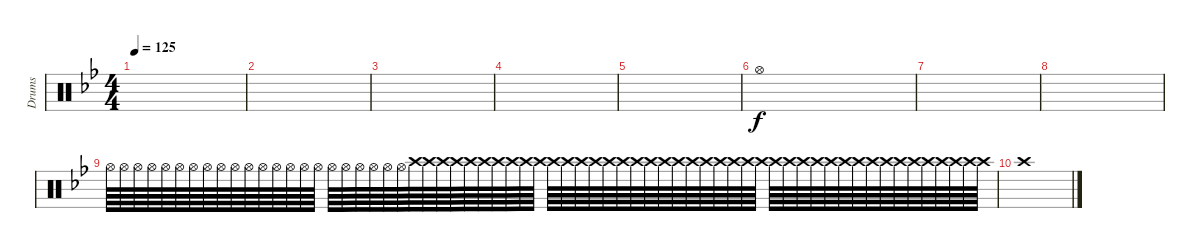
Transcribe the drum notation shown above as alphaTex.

\track ("Drums" "Drums") {instrument percussion}
\staff {score}
\articulation defaults
\ts (4 4)
\tempo 125
\clef neutral
\ks bb
|
|
|
|
|
"Hi-Hat (open)".1 |
|
|
"Hi-Hat (open)".64{volume 5} "Hi-Hat (open)".64 "Hi-Hat (open)".64 "Hi-Hat (open)".64 "Hi-Hat (open)".64 "Hi-Hat (open)".64 "Hi-Hat (open)".64 "Hi-Hat (open)".64 "Hi-Hat (open)".64{volume 8} "Hi-Hat (open)".64 "Hi-Hat (open)".64 "Hi-Hat (open)".64 "Hi-Hat (open)".64 "Hi-Hat (open)".64 "Hi-Hat (open)".64 "Hi-Hat (open)".64 "Hi-Hat (open)".64{volume 11} "Hi-Hat (open)".64 "Hi-Hat (open)".64 "Hi-Hat (open)".64 "Hi-Hat (open)".64 "Hi-Hat (open)".64 "Crash high (hit)".64{volume 13} "Crash high (hit)".64 "Crash high (hit)".64 "Crash high (hit)".64 "Crash high (hit)".64 "Crash high (hit)".64 "Crash high (hit)".64 "Crash high (hit)".64 "Crash high (hit)".64 "Crash high (hit)".64 "Crash high (hit)".64 "Crash high (hit)".64 "Crash high (hit)".64 "Crash high (hit)".64 "Crash high (hit)".64 "Crash high (hit)".64 "Crash high (hit)".64 "Crash high (hit)".64 "Crash high (hit)".64 "Crash high (hit)".64 "Crash high (hit)".64 "Crash high (hit)".64 "Crash high (hit)".64 "Crash high (hit)".64 "Crash high (hit)".64 "Crash high (hit)".64 "Crash high (hit)".64 "Crash high (hit)".64 "Crash high (hit)".64 "Crash high (hit)".64 "Crash high (hit)".64 "Crash high (hit)".64 "Crash high (hit)".64 "Crash high (hit)".64 "Crash high (hit)".64 "Crash high (hit)".64 "Crash high (hit)".64 "Crash high (hit)".64 "Crash high (hit)".64 "Crash high (hit)".64 "Crash high (hit)".64 "Crash high (hit)".64 |
"Crash high (hit)".1
